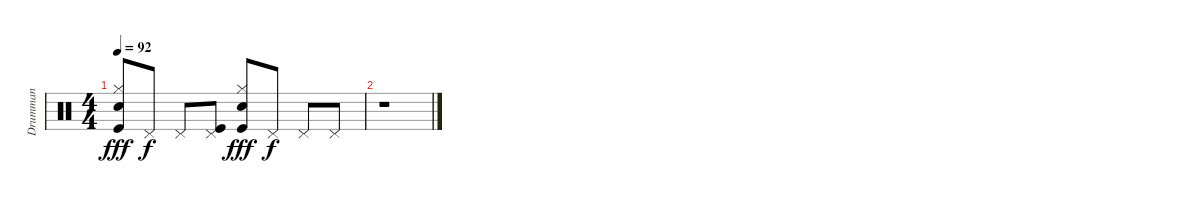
\track ("Drumman" "Drumman") {instrument percussion}
\staff {score}
\articulation defaults
\ts (4 4)
\tempo 92
\clef neutral
\ks c
("Hand Clap (hit)" "Hi-Hat (closed)" "Kick (hit)").8{dy fff} "Pedal Hi-Hat (hit)".8{dy f} "Pedal Hi-Hat (hit)".8 ("Pedal Hi-Hat (hit)" "Kick (hit)").8 ("Hand Clap (hit)" "Hi-Hat (closed)" "Kick (hit)").8{dy fff} "Pedal Hi-Hat (hit)".8{dy f} "Pedal Hi-Hat (hit)".8 "Pedal Hi-Hat (hit)".8 |
r.1
